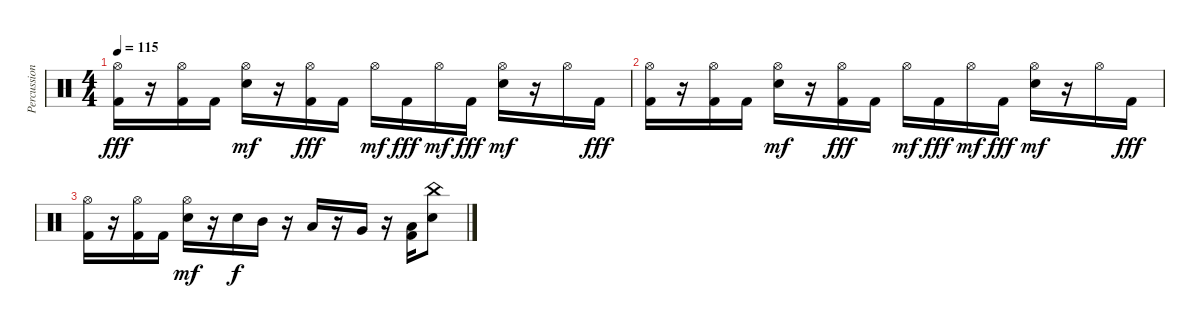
\track ("Percussion" "Percussion") {instrument percussion}
\staff {score}
\articulation defaults
\ts (4 4)
\tempo 115
\clef neutral
\ks c
("Hi-Hat (open)" "Kick (hit) 2").16{dy fff} r.16 ("Hi-Hat (open)" "Kick (hit) 2").16 "Kick (hit) 2".16 ("Hi-Hat (open)" "Electric Snare (hit)").16{dy mf} r.16 ("Hi-Hat (open)" "Kick (hit) 2").16{dy fff} "Kick (hit) 2".16 "Hi-Hat (open)".16{dy mf} "Kick (hit) 2".16{dy fff} "Hi-Hat (open)".16{dy mf} "Kick (hit) 2".16{dy fff} ("Hi-Hat (open)" "Electric Snare (hit)").16{dy mf} r.16 "Hi-Hat (open)".16 "Kick (hit) 2".16{dy fff} |
("Hi-Hat (open)" "Kick (hit) 2").16 r.16 ("Hi-Hat (open)" "Kick (hit) 2").16 "Kick (hit) 2".16 ("Hi-Hat (open)" "Electric Snare (hit)").16{dy mf} r.16 ("Hi-Hat (open)" "Kick (hit) 2").16{dy fff} "Kick (hit) 2".16 "Hi-Hat (open)".16{dy mf} "Kick (hit) 2".16{dy fff} "Hi-Hat (open)".16{dy mf} "Kick (hit) 2".16{dy fff} ("Hi-Hat (open)" "Electric Snare (hit)").16{dy mf} r.16 "Hi-Hat (open)".16 "Kick (hit) 2".16{dy fff} |
("Hi-Hat (open)" "Kick (hit) 2").16 r.16 ("Hi-Hat (open)" "Kick (hit) 2").16 "Kick (hit) 2".16 ("Hi-Hat (open)" "Electric Snare (hit)").16{dy mf} r.16 "Electric Snare (hit)".16{dy f} "Mid Tom (hit)".16 r.16 "Low Tom (hit)".16 r.16 "Very Low Tom (hit)".16 r.16 ("Low Floor Tom (hit)" "Kick (hit) 2").16 ("China (hit)" "Electric Snare (hit)").8
